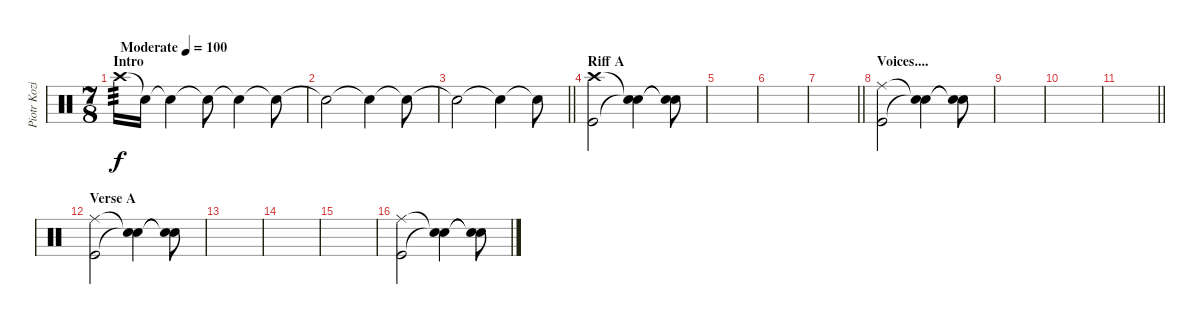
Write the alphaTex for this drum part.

\track ("Piotr Kozieradzki" "Piotr Kozi") {instrument percussion}
\staff {score}
\articulation defaults
\ts (7 8)
\section ("" "Intro")
\tempo (100 "Moderate")
\clef neutral
\ks c "Crash high (hit)".16{tp 3 dy f volume 0} "Snare (hit)"{t}.16{volume 13} "Snare (hit)"{t}.4 "Snare (hit)"{t}.8 "Snare (hit)"{t}.4 "Snare (hit)"{t}.8
|
"Snare (hit)"{t}.2 "Snare (hit)"{t}.4 "Snare (hit)"{t}.8 |
\barLineRight lightlight "Snare (hit)"{t}.2 "Snare (hit)"{t}.4 "Snare (hit)"{t}.8
|
\section ("" "Riff A")
("Crash high (hit)" "Kick (hit)").2 ("Snare (hit)"{t} "Snare (hit)"{t}).4 ("Snare (hit)"{t} "Snare (hit)"{t}).8 |
|
|
\barLineRight lightlight
|
\section ("" "Voices....")
("Ride (middle)" "Kick (hit)").2 ("Snare (hit)"{t} "Snare (hit)"{t}).4 ("Snare (hit)"{t} "Snare (hit)"{t}).8 |
|
|
\barLineRight lightlight
|
\section ("" "Verse A")
("Ride (middle)" "Kick (hit)").2 ("Snare (hit)"{t} "Snare (hit)"{t}).4 ("Snare (hit)"{t} "Snare (hit)"{t}).8 |
|
|
|
("Ride (middle)" "Kick (hit)").2 ("Snare (hit)"{t} "Snare (hit)"{t}).4 ("Snare (hit)"{t} "Snare (hit)"{t}).8
